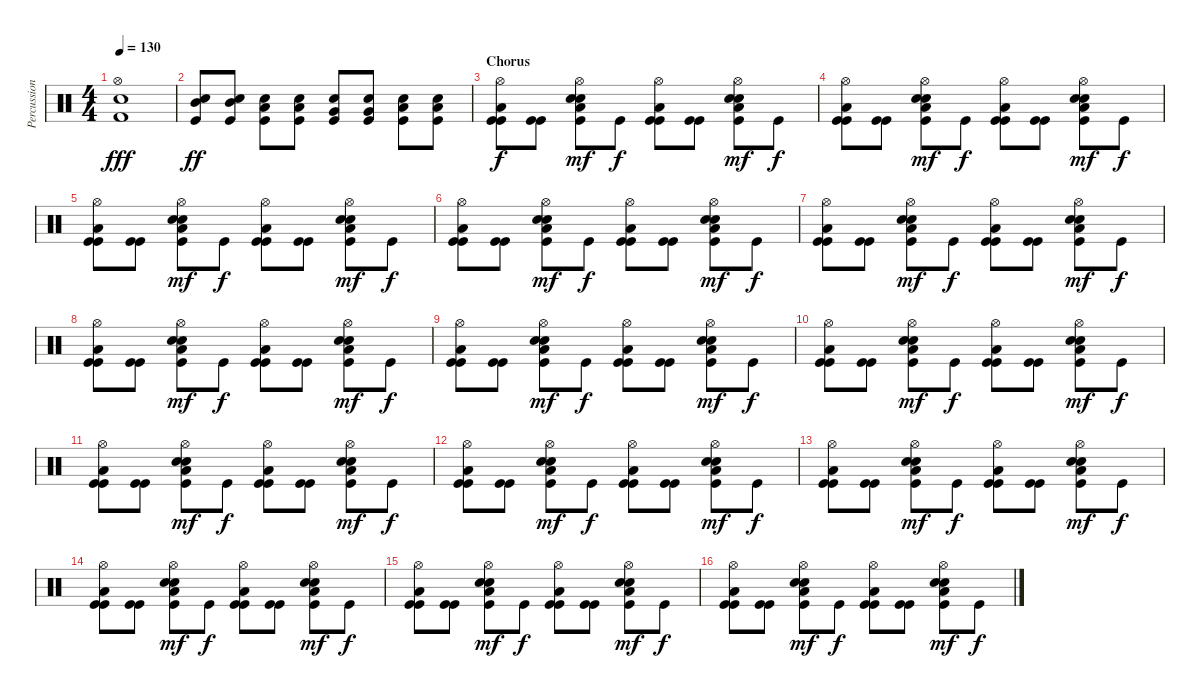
\track ("Percussion" "Percussion") {instrument percussion}
\staff {score}
\articulation defaults
\ts (4 4)
\tempo 130
\clef neutral
\ks c
("Hi-Hat (open)" "Snare (hit) 2" "Kick (hit) 2").1{dy fff} |
("Mid Tom (hit)" "Snare (hit) 2" "Kick (hit)").8{dy ff} ("Mid Tom (hit)" "Snare (hit) 2" "Kick (hit)").8 ("Low Tom (hit)" "Snare (hit) 2" "Kick (hit)").8 ("Low Tom (hit)" "Snare (hit) 2" "Kick (hit)").8 ("Very Low Tom (hit)" "Snare (hit) 2" "Kick (hit)").8 ("Very Low Tom (hit)" "Snare (hit) 2" "Kick (hit)").8 ("Low Floor Tom (hit)" "Snare (hit) 2" "Kick (hit)").8 ("Low Floor Tom (hit)" "Snare (hit) 2" "Kick (hit)").8 |
\section ("" "Chorus")
("Hi-Hat (open)" "Kick (hit)" "Kick (hit)" "Low Floor Tom (hit)").8{dy f} ("Kick (hit)" "Kick (hit)").8 ("Hi-Hat (open)" "Snare (hit) 2" "Snare (hit) 2" "Kick (hit)" "Low Floor Tom (hit)").8{dy mf} "Kick (hit)".8{dy f} ("Hi-Hat (open)" "Kick (hit)" "Kick (hit)" "Low Floor Tom (hit)").8 ("Kick (hit)" "Kick (hit)").8 ("Hi-Hat (open)" "Snare (hit) 2" "Snare (hit) 2" "Kick (hit)" "Low Floor Tom (hit)").8{dy mf} "Kick (hit)".8{dy f} |
("Hi-Hat (open)" "Kick (hit)" "Kick (hit)" "Low Floor Tom (hit)").8 ("Kick (hit)" "Kick (hit)").8 ("Hi-Hat (open)" "Snare (hit) 2" "Snare (hit) 2" "Kick (hit)" "Low Floor Tom (hit)").8{dy mf} "Kick (hit)".8{dy f} ("Hi-Hat (open)" "Kick (hit)" "Kick (hit)" "Low Floor Tom (hit)").8 ("Kick (hit)" "Kick (hit)").8 ("Hi-Hat (open)" "Snare (hit) 2" "Snare (hit) 2" "Kick (hit)" "Low Floor Tom (hit)").8{dy mf} "Kick (hit)".8{dy f} |
("Hi-Hat (open)" "Kick (hit)" "Kick (hit)" "Low Floor Tom (hit)").8 ("Kick (hit)" "Kick (hit)").8 ("Hi-Hat (open)" "Snare (hit) 2" "Snare (hit) 2" "Kick (hit)" "Low Floor Tom (hit)").8{dy mf} "Kick (hit)".8{dy f} ("Hi-Hat (open)" "Kick (hit)" "Kick (hit)" "Low Floor Tom (hit)").8 ("Kick (hit)" "Kick (hit)").8 ("Hi-Hat (open)" "Snare (hit) 2" "Snare (hit) 2" "Kick (hit)" "Low Floor Tom (hit)").8{dy mf} "Kick (hit)".8{dy f} |
("Hi-Hat (open)" "Kick (hit)" "Kick (hit)" "Low Floor Tom (hit)").8 ("Kick (hit)" "Kick (hit)").8 ("Hi-Hat (open)" "Snare (hit) 2" "Snare (hit) 2" "Kick (hit)" "Low Floor Tom (hit)").8{dy mf} "Kick (hit)".8{dy f} ("Hi-Hat (open)" "Kick (hit)" "Kick (hit)" "Low Floor Tom (hit)").8 ("Kick (hit)" "Kick (hit)").8 ("Hi-Hat (open)" "Snare (hit) 2" "Snare (hit) 2" "Kick (hit)" "Low Floor Tom (hit)").8{dy mf} "Kick (hit)".8{dy f} |
("Hi-Hat (open)" "Kick (hit)" "Kick (hit)" "Low Floor Tom (hit)").8 ("Kick (hit)" "Kick (hit)").8 ("Hi-Hat (open)" "Snare (hit) 2" "Snare (hit) 2" "Kick (hit)" "Low Floor Tom (hit)").8{dy mf} "Kick (hit)".8{dy f} ("Hi-Hat (open)" "Kick (hit)" "Kick (hit)" "Low Floor Tom (hit)").8 ("Kick (hit)" "Kick (hit)").8 ("Hi-Hat (open)" "Snare (hit) 2" "Snare (hit) 2" "Kick (hit)" "Low Floor Tom (hit)").8{dy mf} "Kick (hit)".8{dy f} |
("Hi-Hat (open)" "Kick (hit)" "Kick (hit)" "Low Floor Tom (hit)").8 ("Kick (hit)" "Kick (hit)").8 ("Hi-Hat (open)" "Snare (hit) 2" "Snare (hit) 2" "Kick (hit)" "Low Floor Tom (hit)").8{dy mf} "Kick (hit)".8{dy f} ("Hi-Hat (open)" "Kick (hit)" "Kick (hit)" "Low Floor Tom (hit)").8 ("Kick (hit)" "Kick (hit)").8 ("Hi-Hat (open)" "Snare (hit) 2" "Snare (hit) 2" "Kick (hit)" "Low Floor Tom (hit)").8{dy mf} "Kick (hit)".8{dy f} |
("Hi-Hat (open)" "Kick (hit)" "Kick (hit)" "Low Floor Tom (hit)").8 ("Kick (hit)" "Kick (hit)").8 ("Hi-Hat (open)" "Snare (hit) 2" "Snare (hit) 2" "Kick (hit)" "Low Floor Tom (hit)").8{dy mf} "Kick (hit)".8{dy f} ("Hi-Hat (open)" "Kick (hit)" "Kick (hit)" "Low Floor Tom (hit)").8 ("Kick (hit)" "Kick (hit)").8 ("Hi-Hat (open)" "Snare (hit) 2" "Snare (hit) 2" "Kick (hit)" "Low Floor Tom (hit)").8{dy mf} "Kick (hit)".8{dy f} |
("Hi-Hat (open)" "Kick (hit)" "Kick (hit)" "Low Floor Tom (hit)").8 ("Kick (hit)" "Kick (hit)").8 ("Hi-Hat (open)" "Snare (hit) 2" "Snare (hit) 2" "Kick (hit)" "Low Floor Tom (hit)").8{dy mf} "Kick (hit)".8{dy f} ("Hi-Hat (open)" "Kick (hit)" "Kick (hit)" "Low Floor Tom (hit)").8 ("Kick (hit)" "Kick (hit)").8 ("Hi-Hat (open)" "Snare (hit) 2" "Snare (hit) 2" "Kick (hit)" "Low Floor Tom (hit)").8{dy mf} "Kick (hit)".8{dy f} |
("Hi-Hat (open)" "Kick (hit)" "Kick (hit)" "Low Floor Tom (hit)").8 ("Kick (hit)" "Kick (hit)").8 ("Hi-Hat (open)" "Snare (hit) 2" "Snare (hit) 2" "Kick (hit)" "Low Floor Tom (hit)").8{dy mf} "Kick (hit)".8{dy f} ("Hi-Hat (open)" "Kick (hit)" "Kick (hit)" "Low Floor Tom (hit)").8 ("Kick (hit)" "Kick (hit)").8 ("Hi-Hat (open)" "Snare (hit) 2" "Snare (hit) 2" "Kick (hit)" "Low Floor Tom (hit)").8{dy mf} "Kick (hit)".8{dy f} |
("Hi-Hat (open)" "Kick (hit)" "Kick (hit)" "Low Floor Tom (hit)").8 ("Kick (hit)" "Kick (hit)").8 ("Hi-Hat (open)" "Snare (hit) 2" "Snare (hit) 2" "Kick (hit)" "Low Floor Tom (hit)").8{dy mf} "Kick (hit)".8{dy f} ("Hi-Hat (open)" "Kick (hit)" "Kick (hit)" "Low Floor Tom (hit)").8 ("Kick (hit)" "Kick (hit)").8 ("Hi-Hat (open)" "Snare (hit) 2" "Snare (hit) 2" "Kick (hit)" "Low Floor Tom (hit)").8{dy mf} "Kick (hit)".8{dy f} |
("Hi-Hat (open)" "Kick (hit)" "Kick (hit)" "Low Floor Tom (hit)").8 ("Kick (hit)" "Kick (hit)").8 ("Hi-Hat (open)" "Snare (hit) 2" "Snare (hit) 2" "Kick (hit)" "Low Floor Tom (hit)").8{dy mf} "Kick (hit)".8{dy f} ("Hi-Hat (open)" "Kick (hit)" "Kick (hit)" "Low Floor Tom (hit)").8 ("Kick (hit)" "Kick (hit)").8 ("Hi-Hat (open)" "Snare (hit) 2" "Snare (hit) 2" "Kick (hit)" "Low Floor Tom (hit)").8{dy mf} "Kick (hit)".8{dy f} |
("Hi-Hat (open)" "Kick (hit)" "Kick (hit)" "Low Floor Tom (hit)").8 ("Kick (hit)" "Kick (hit)").8 ("Hi-Hat (open)" "Snare (hit) 2" "Snare (hit) 2" "Kick (hit)" "Low Floor Tom (hit)").8{dy mf} "Kick (hit)".8{dy f} ("Hi-Hat (open)" "Kick (hit)" "Kick (hit)" "Low Floor Tom (hit)").8 ("Kick (hit)" "Kick (hit)").8 ("Hi-Hat (open)" "Snare (hit) 2" "Snare (hit) 2" "Kick (hit)" "Low Floor Tom (hit)").8{dy mf} "Kick (hit)".8{dy f} |
("Hi-Hat (open)" "Kick (hit)" "Kick (hit)" "Low Floor Tom (hit)").8 ("Kick (hit)" "Kick (hit)").8 ("Hi-Hat (open)" "Snare (hit) 2" "Snare (hit) 2" "Kick (hit)" "Low Floor Tom (hit)").8{dy mf} "Kick (hit)".8{dy f} ("Hi-Hat (open)" "Kick (hit)" "Kick (hit)" "Low Floor Tom (hit)").8 ("Kick (hit)" "Kick (hit)").8 ("Hi-Hat (open)" "Snare (hit) 2" "Snare (hit) 2" "Kick (hit)" "Low Floor Tom (hit)").8{dy mf} "Kick (hit)".8{dy f} |
("Hi-Hat (open)" "Kick (hit)" "Kick (hit)" "Low Floor Tom (hit)").8 ("Kick (hit)" "Kick (hit)").8 ("Hi-Hat (open)" "Snare (hit) 2" "Snare (hit) 2" "Kick (hit)" "Low Floor Tom (hit)").8{dy mf} "Kick (hit)".8{dy f} ("Hi-Hat (open)" "Kick (hit)" "Kick (hit)" "Low Floor Tom (hit)").8 ("Kick (hit)" "Kick (hit)").8 ("Hi-Hat (open)" "Snare (hit) 2" "Snare (hit) 2" "Kick (hit)" "Low Floor Tom (hit)").8{dy mf} "Kick (hit)".8{dy f}
